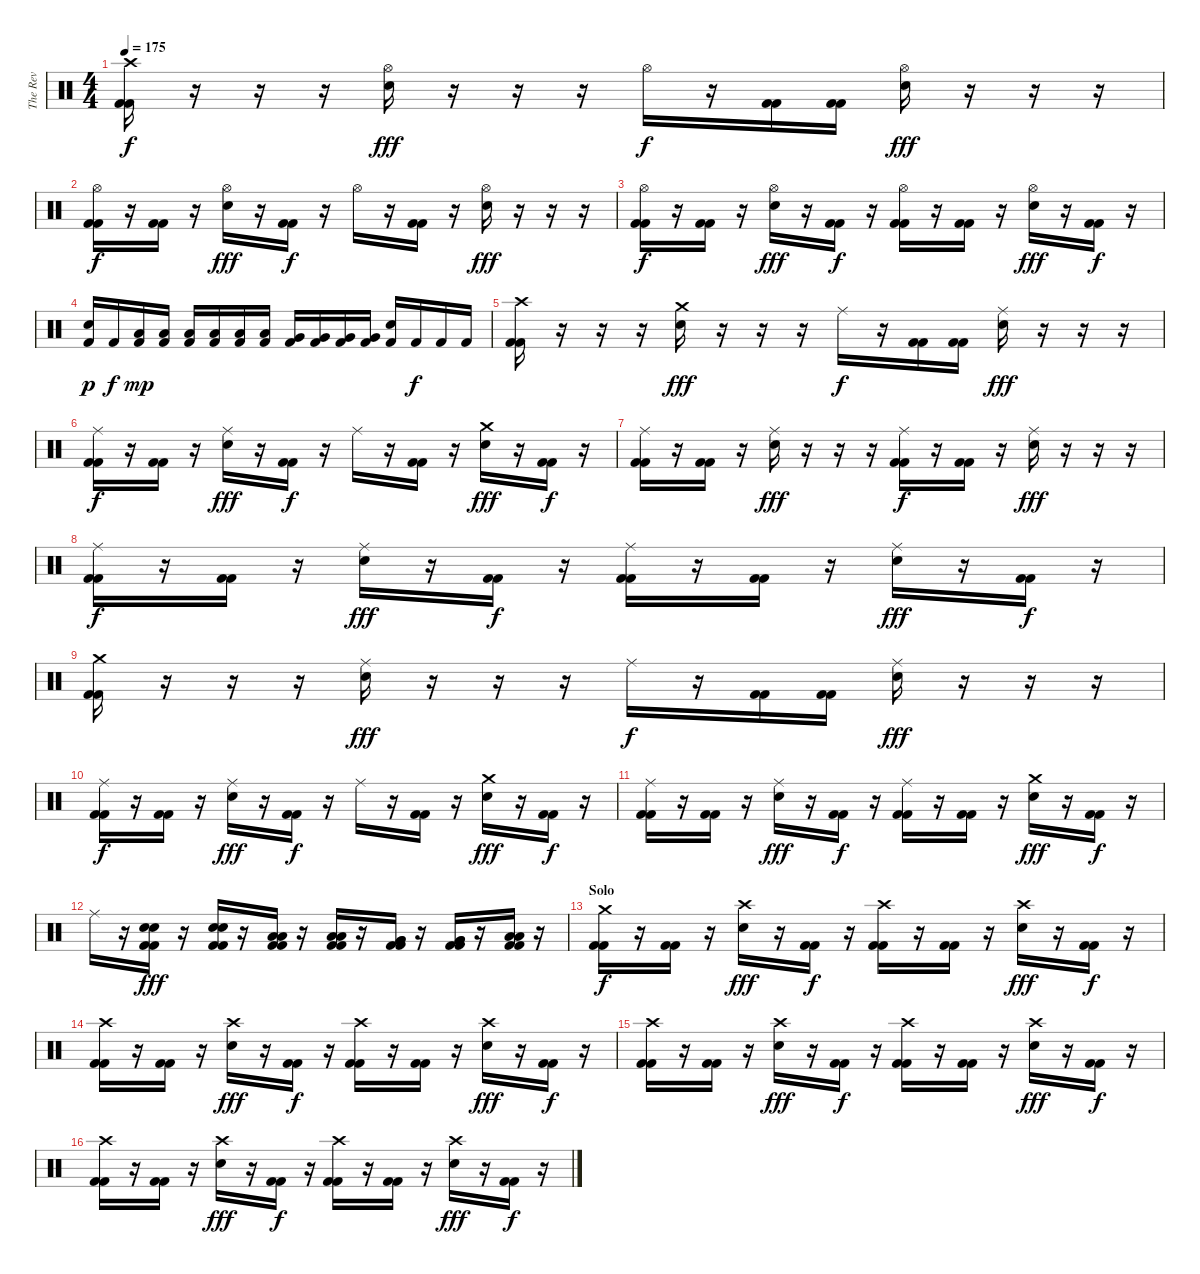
\track ("The Rev" "The Rev") {instrument percussion}
\staff {score}
\articulation defaults
\ts (4 4)
\tempo 175
\clef neutral
\ks c
("Crash high (hit)" "Kick (hit) 2" "Kick (hit) 2").16{dy f} r.16 r.16 r.16 ("Hi-Hat (open)" "Electric Snare (hit)").16{dy fff} r.16 r.16 r.16 "Hi-Hat (open)".16{dy f} r.16 ("Kick (hit) 2" "Kick (hit) 2").16 ("Kick (hit) 2" "Kick (hit) 2").16 ("Hi-Hat (open)" "Electric Snare (hit)").16{dy fff} r.16 r.16 r.16 |
("Hi-Hat (open)" "Kick (hit) 2" "Kick (hit) 2").16{dy f} r.16 ("Kick (hit) 2" "Kick (hit) 2").16 r.16 ("Hi-Hat (open)" "Electric Snare (hit)").16{dy fff} r.16 ("Kick (hit) 2" "Kick (hit) 2").16{dy f} r.16 "Hi-Hat (open)".16 r.16 ("Kick (hit) 2" "Kick (hit) 2").16 r.16 ("Hi-Hat (open)" "Electric Snare (hit)").16{dy fff} r.16 r.16 r.16 |
("Hi-Hat (open)" "Kick (hit) 2" "Kick (hit) 2").16{dy f} r.16 ("Kick (hit) 2" "Kick (hit) 2").16 r.16 ("Hi-Hat (open)" "Electric Snare (hit)").16{dy fff} r.16 ("Kick (hit) 2" "Kick (hit) 2").16{dy f} r.16 ("Hi-Hat (open)" "Kick (hit) 2" "Kick (hit) 2").16 r.16 ("Kick (hit) 2" "Kick (hit) 2").16 r.16 ("Hi-Hat (open)" "Electric Snare (hit)").16{dy fff} r.16 ("Kick (hit) 2" "Kick (hit) 2").16{dy f} r.16 |
("Electric Snare (hit)" "Kick (hit) 2").16{dy p} "Kick (hit) 2".16{dy f} ("Low Floor Tom (hit)" "Kick (hit) 2").16{dy mp} ("Low Floor Tom (hit)" "Kick (hit) 2").16 ("Low Floor Tom (hit)" "Kick (hit) 2").16 ("Low Floor Tom (hit)" "Kick (hit) 2").16 ("Low Floor Tom (hit)" "Kick (hit) 2").16 ("Low Floor Tom (hit)" "Kick (hit) 2").16 ("Very Low Tom (hit)" "Kick (hit) 2").16 ("Very Low Tom (hit)" "Kick (hit) 2").16 ("Very Low Tom (hit)" "Kick (hit) 2").16 ("Very Low Tom (hit)" "Kick (hit) 2").16 ("Electric Snare (hit)" "Kick (hit) 2").16 "Kick (hit) 2".16{dy f} "Kick (hit) 2".16 "Kick (hit) 2".16 |
("Crash high (hit)" "Kick (hit) 2" "Kick (hit) 2").16 r.16 r.16 r.16 ("Crash medium (hit)" "Electric Snare (hit)").16{dy fff} r.16 r.16 r.16 "Ride (middle)".16{dy f} r.16 ("Kick (hit) 2" "Kick (hit) 2").16 ("Kick (hit) 2" "Kick (hit) 2").16 ("Ride (middle)" "Electric Snare (hit)").16{dy fff} r.16 r.16 r.16 |
("Ride (middle)" "Kick (hit) 2" "Kick (hit) 2").16{dy f} r.16 ("Kick (hit) 2" "Kick (hit) 2").16 r.16 ("Ride (middle)" "Electric Snare (hit)").16{dy fff} r.16 ("Kick (hit) 2" "Kick (hit) 2").16{dy f} r.16 "Ride (middle)".16 r.16 ("Kick (hit) 2" "Kick (hit) 2").16 r.16 ("Crash medium (hit)" "Electric Snare (hit)").16{dy fff} r.16 ("Kick (hit) 2" "Kick (hit) 2").16{dy f} r.16 |
("Ride (middle)" "Kick (hit) 2" "Kick (hit) 2").16 r.16 ("Kick (hit) 2" "Kick (hit) 2").16 r.16 ("Ride (middle)" "Electric Snare (hit)").16{dy fff} r.16 r.16 r.16 ("Ride (middle)" "Kick (hit) 2" "Kick (hit) 2").16{dy f} r.16 ("Kick (hit) 2" "Kick (hit) 2").16 r.16 ("Ride (middle)" "Electric Snare (hit)").16{dy fff} r.16 r.16 r.16 |
("Ride (middle)" "Kick (hit) 2" "Kick (hit) 2").16{dy f} r.16 ("Kick (hit) 2" "Kick (hit) 2").16 r.16 ("Ride (middle)" "Electric Snare (hit)").16{dy fff} r.16 ("Kick (hit) 2" "Kick (hit) 2").16{dy f} r.16 ("Ride (middle)" "Kick (hit) 2" "Kick (hit) 2").16 r.16 ("Kick (hit) 2" "Kick (hit) 2").16 r.16 ("Ride (middle)" "Electric Snare (hit)").16{dy fff} r.16 ("Kick (hit) 2" "Kick (hit) 2").16{dy f} r.16 |
("Crash medium (hit)" "Kick (hit) 2" "Kick (hit) 2").16 r.16 r.16 r.16 ("Ride (middle)" "Electric Snare (hit)").16{dy fff} r.16 r.16 r.16 "Ride (middle)".16{dy f} r.16 ("Kick (hit) 2" "Kick (hit) 2").16 ("Kick (hit) 2" "Kick (hit) 2").16 ("Ride (middle)" "Electric Snare (hit)").16{dy fff} r.16 r.16 r.16 |
("Ride (middle)" "Kick (hit) 2" "Kick (hit) 2").16{dy f} r.16 ("Kick (hit) 2" "Kick (hit) 2").16 r.16 ("Ride (middle)" "Electric Snare (hit)").16{dy fff} r.16 ("Kick (hit) 2" "Kick (hit) 2").16{dy f} r.16 "Ride (middle)".16 r.16 ("Kick (hit) 2" "Kick (hit) 2").16 r.16 ("Crash medium (hit)" "Electric Snare (hit)").16{dy fff} r.16 ("Kick (hit) 2" "Kick (hit) 2").16{dy f} r.16 |
("Ride (middle)" "Kick (hit) 2" "Kick (hit) 2").16 r.16 ("Kick (hit) 2" "Kick (hit) 2").16 r.16 ("Ride (middle)" "Electric Snare (hit)").16{dy fff} r.16 ("Kick (hit) 2" "Kick (hit) 2").16{dy f} r.16 ("Ride (middle)" "Kick (hit) 2" "Kick (hit) 2").16 r.16 ("Kick (hit) 2" "Kick (hit) 2").16 r.16 ("Crash medium (hit)" "Electric Snare (hit)").16{dy fff} r.16 ("Kick (hit) 2" "Kick (hit) 2").16{dy f} r.16 |
"Ride (middle)".16 r.16 ("Electric Snare (hit)" "Electric Snare (hit)" "Kick (hit) 2" "Kick (hit) 2").16{dy fff} r.16 ("Electric Snare (hit)" "Electric Snare (hit)" "Kick (hit) 2" "Kick (hit) 2").16 r.16 ("Low Tom (hit)" "Low Tom (hit)" "Kick (hit) 2" "Kick (hit) 2").16 r.16 ("Low Tom (hit)" "Low Tom (hit)" "Kick (hit) 2" "Kick (hit) 2").16 r.16 ("Very Low Tom (hit)" "Very Low Tom (hit)" "Kick (hit) 2" "Kick (hit) 2").16 r.16 ("Very Low Tom (hit)" "Very Low Tom (hit)" "Kick (hit) 2" "Kick (hit) 2").16 r.16 ("Low Floor Tom (hit)" "Low Floor Tom (hit)" "Kick (hit) 2" "Kick (hit) 2").16 r.16 |
\section ("" "Solo")
("Crash medium (hit)" "Kick (hit) 2" "Kick (hit) 2").16{dy f} r.16 ("Kick (hit) 2" "Kick (hit) 2").16 r.16 ("Crash high (hit)" "Electric Snare (hit)").16{dy fff} r.16 ("Kick (hit) 2" "Kick (hit) 2").16{dy f} r.16 ("Crash high (hit)" "Kick (hit) 2" "Kick (hit) 2").16 r.16 ("Kick (hit) 2" "Kick (hit) 2").16 r.16 ("Crash high (hit)" "Electric Snare (hit)").16{dy fff} r.16 ("Kick (hit) 2" "Kick (hit) 2").16{dy f} r.16 |
("Crash high (hit)" "Kick (hit) 2" "Kick (hit) 2").16 r.16 ("Kick (hit) 2" "Kick (hit) 2").16 r.16 ("Crash high (hit)" "Electric Snare (hit)").16{dy fff} r.16 ("Kick (hit) 2" "Kick (hit) 2").16{dy f} r.16 ("Crash high (hit)" "Kick (hit) 2" "Kick (hit) 2").16 r.16 ("Kick (hit) 2" "Kick (hit) 2").16 r.16 ("Crash high (hit)" "Electric Snare (hit)").16{dy fff} r.16 ("Kick (hit) 2" "Kick (hit) 2").16{dy f} r.16 |
("Crash high (hit)" "Kick (hit) 2" "Kick (hit) 2").16 r.16 ("Kick (hit) 2" "Kick (hit) 2").16 r.16 ("Crash high (hit)" "Electric Snare (hit)").16{dy fff} r.16 ("Kick (hit) 2" "Kick (hit) 2").16{dy f} r.16 ("Crash high (hit)" "Kick (hit) 2" "Kick (hit) 2").16 r.16 ("Kick (hit) 2" "Kick (hit) 2").16 r.16 ("Crash high (hit)" "Electric Snare (hit)").16{dy fff} r.16 ("Kick (hit) 2" "Kick (hit) 2").16{dy f} r.16 |
("Crash high (hit)" "Kick (hit) 2" "Kick (hit) 2").16 r.16 ("Kick (hit) 2" "Kick (hit) 2").16 r.16 ("Crash high (hit)" "Electric Snare (hit)").16{dy fff} r.16 ("Kick (hit) 2" "Kick (hit) 2").16{dy f} r.16 ("Crash high (hit)" "Kick (hit) 2" "Kick (hit) 2").16 r.16 ("Kick (hit) 2" "Kick (hit) 2").16 r.16 ("Crash high (hit)" "Electric Snare (hit)").16{dy fff} r.16 ("Kick (hit) 2" "Kick (hit) 2").16{dy f} r.16
